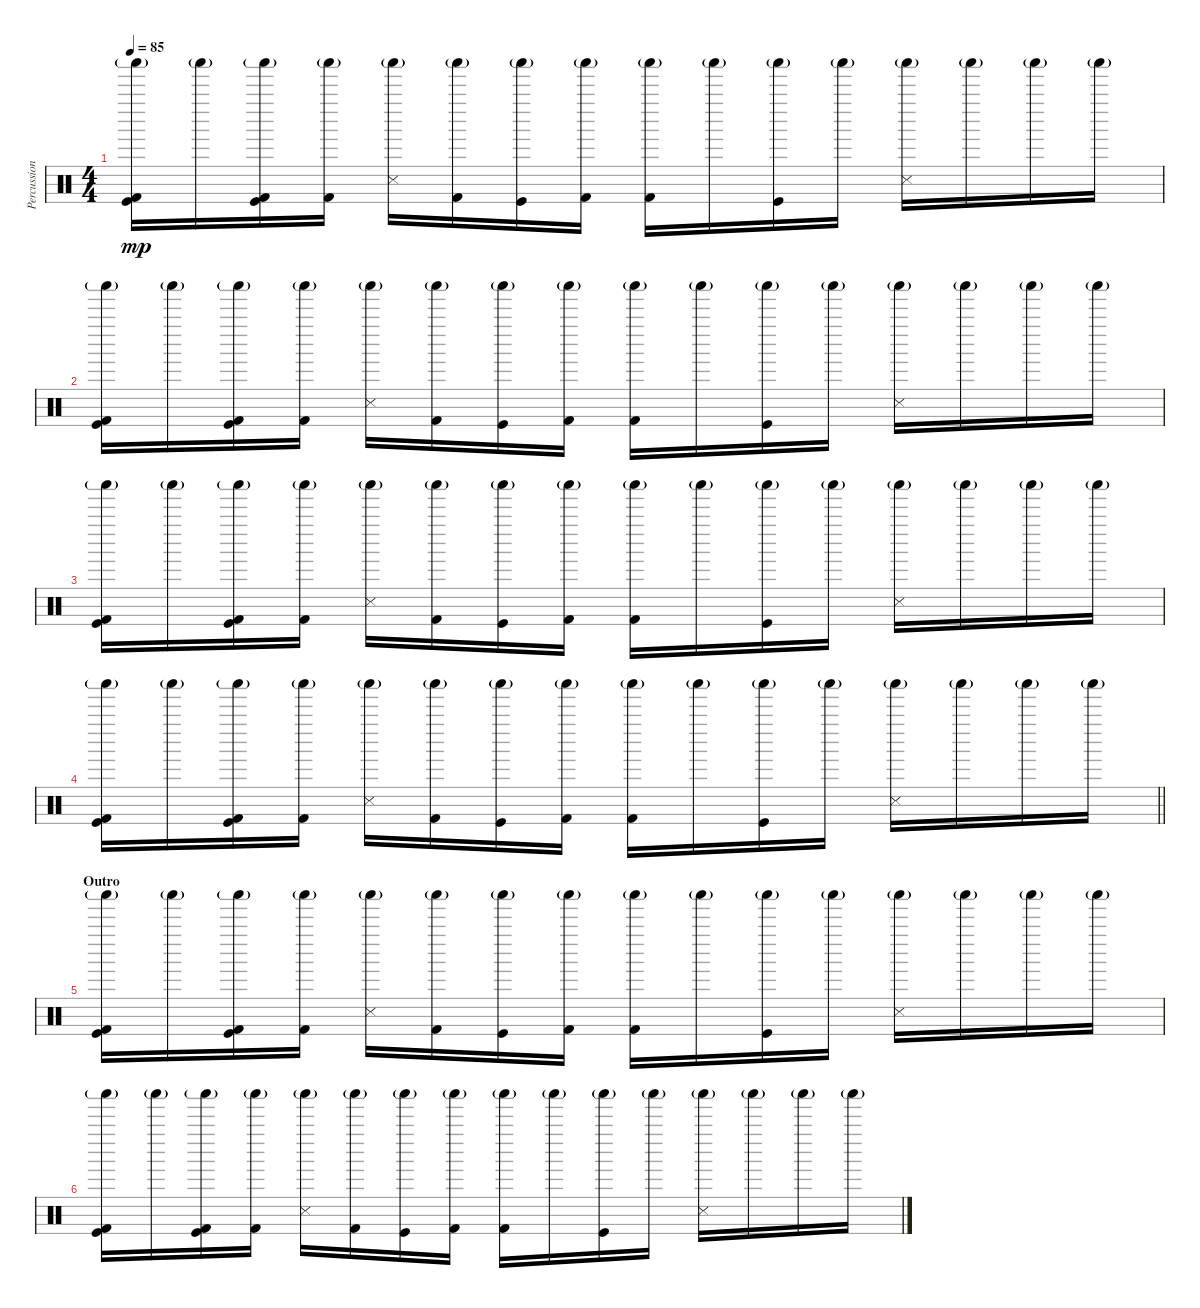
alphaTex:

\track ("Percussions" "Percussion") {instrument percussion}
\staff {score}
\articulation defaults
\ts (4 4)
\tempo 85
\clef neutral
\ks c
("Shaker (hit)"{g} "Kick (hit) 2" "Kick (hit)").16{dy mp} "Shaker (hit)"{g}.16 ("Shaker (hit)"{g} "Kick (hit) 2" "Kick (hit)").16 ("Shaker (hit)"{g} "Kick (hit) 2").16 ("Shaker (hit)"{g} "Snare (side stick) 3").16 ("Shaker (hit)"{g} "Kick (hit) 2").16 ("Shaker (hit)"{g} "Kick (hit)").16 ("Shaker (hit)"{g} "Kick (hit) 2").16 ("Shaker (hit)"{g} "Kick (hit) 2").16 "Shaker (hit)"{g}.16 ("Shaker (hit)"{g} "Kick (hit)").16 "Shaker (hit)"{g}.16 ("Shaker (hit)"{g} "Snare (side stick) 3").16 "Shaker (hit)"{g}.16 "Shaker (hit)"{g}.16 "Shaker (hit)"{g}.16 |
("Shaker (hit)"{g} "Kick (hit) 2" "Kick (hit)").16 "Shaker (hit)"{g}.16 ("Shaker (hit)"{g} "Kick (hit) 2" "Kick (hit)").16 ("Shaker (hit)"{g} "Kick (hit) 2").16 ("Shaker (hit)"{g} "Snare (side stick) 3").16 ("Shaker (hit)"{g} "Kick (hit) 2").16 ("Shaker (hit)"{g} "Kick (hit)").16 ("Shaker (hit)"{g} "Kick (hit) 2").16 ("Shaker (hit)"{g} "Kick (hit) 2").16 "Shaker (hit)"{g}.16 ("Shaker (hit)"{g} "Kick (hit)").16 "Shaker (hit)"{g}.16 ("Shaker (hit)"{g} "Snare (side stick) 3").16 "Shaker (hit)"{g}.16 "Shaker (hit)"{g}.16 "Shaker (hit)"{g}.16 |
("Shaker (hit)"{g} "Kick (hit) 2" "Kick (hit)").16 "Shaker (hit)"{g}.16 ("Shaker (hit)"{g} "Kick (hit) 2" "Kick (hit)").16 ("Shaker (hit)"{g} "Kick (hit) 2").16 ("Shaker (hit)"{g} "Snare (side stick) 3").16 ("Shaker (hit)"{g} "Kick (hit) 2").16 ("Shaker (hit)"{g} "Kick (hit)").16 ("Shaker (hit)"{g} "Kick (hit) 2").16 ("Shaker (hit)"{g} "Kick (hit) 2").16 "Shaker (hit)"{g}.16 ("Shaker (hit)"{g} "Kick (hit)").16 "Shaker (hit)"{g}.16 ("Shaker (hit)"{g} "Snare (side stick) 3").16 "Shaker (hit)"{g}.16 "Shaker (hit)"{g}.16 "Shaker (hit)"{g}.16 |
\barLineRight lightlight
("Shaker (hit)"{g} "Kick (hit) 2" "Kick (hit)").16 "Shaker (hit)"{g}.16 ("Shaker (hit)"{g} "Kick (hit) 2" "Kick (hit)").16 ("Shaker (hit)"{g} "Kick (hit) 2").16 ("Shaker (hit)"{g} "Snare (side stick) 3").16 ("Shaker (hit)"{g} "Kick (hit) 2").16 ("Shaker (hit)"{g} "Kick (hit)").16 ("Shaker (hit)"{g} "Kick (hit) 2").16 ("Shaker (hit)"{g} "Kick (hit) 2").16 "Shaker (hit)"{g}.16 ("Shaker (hit)"{g} "Kick (hit)").16 "Shaker (hit)"{g}.16 ("Shaker (hit)"{g} "Snare (side stick) 3").16 "Shaker (hit)"{g}.16 "Shaker (hit)"{g}.16 "Shaker (hit)"{g}.16 |
\section ("" "Outro")
("Shaker (hit)"{g} "Kick (hit) 2" "Kick (hit)").16 "Shaker (hit)"{g}.16 ("Shaker (hit)"{g} "Kick (hit) 2" "Kick (hit)").16 ("Shaker (hit)"{g} "Kick (hit) 2").16 ("Shaker (hit)"{g} "Snare (side stick) 3").16 ("Shaker (hit)"{g} "Kick (hit) 2").16 ("Shaker (hit)"{g} "Kick (hit)").16 ("Shaker (hit)"{g} "Kick (hit) 2").16 ("Shaker (hit)"{g} "Kick (hit) 2").16 "Shaker (hit)"{g}.16 ("Shaker (hit)"{g} "Kick (hit)").16 "Shaker (hit)"{g}.16 ("Shaker (hit)"{g} "Snare (side stick) 3").16 "Shaker (hit)"{g}.16 "Shaker (hit)"{g}.16 "Shaker (hit)"{g}.16 |
("Shaker (hit)"{g} "Kick (hit) 2" "Kick (hit)").16 "Shaker (hit)"{g}.16 ("Shaker (hit)"{g} "Kick (hit) 2" "Kick (hit)").16 ("Shaker (hit)"{g} "Kick (hit) 2").16 ("Shaker (hit)"{g} "Snare (side stick) 3").16 ("Shaker (hit)"{g} "Kick (hit) 2").16 ("Shaker (hit)"{g} "Kick (hit)").16 ("Shaker (hit)"{g} "Kick (hit) 2").16 ("Shaker (hit)"{g} "Kick (hit) 2").16 "Shaker (hit)"{g}.16 ("Shaker (hit)"{g} "Kick (hit)").16 "Shaker (hit)"{g}.16 ("Shaker (hit)"{g} "Snare (side stick) 3").16 "Shaker (hit)"{g}.16 "Shaker (hit)"{g}.16 "Shaker (hit)"{g}.16
